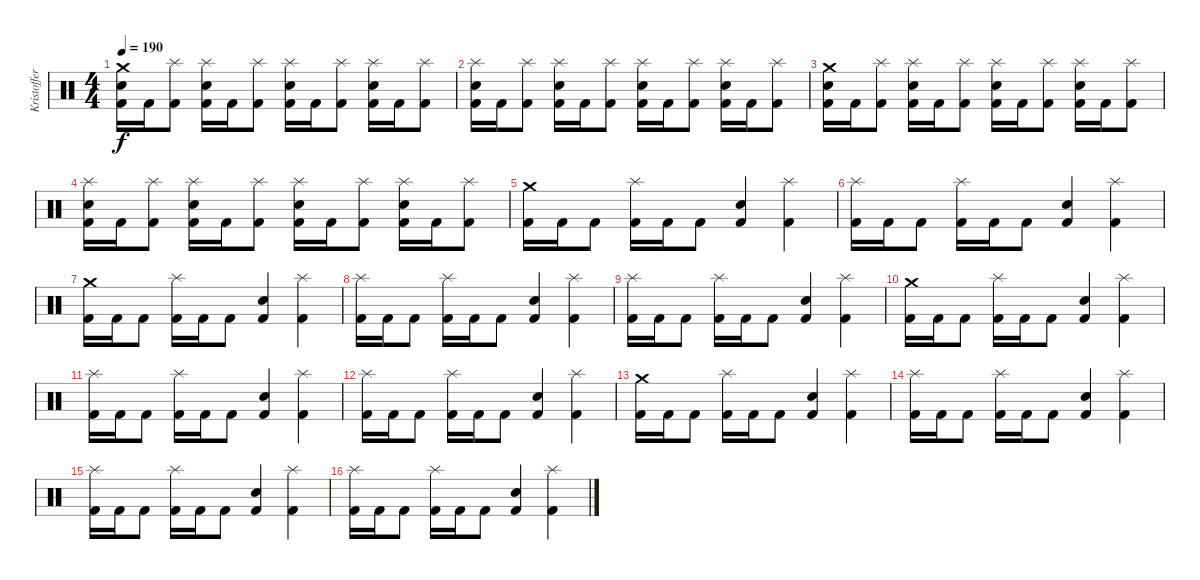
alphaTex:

\track ("Kristoffer (Drums)" "Kristoffer") {instrument percussion}
\staff {score}
\articulation defaults
\ts (4 4)
\tempo 190
\clef neutral
\ks c
("Kick (hit) 2" "Electric Snare (hit)" "Crash medium (hit)").16{dy f} "Kick (hit) 2".16 ("Kick (hit) 2" "Splash (hit)").8 ("Kick (hit) 2" "Electric Snare (hit)" "Splash (hit)").16 "Kick (hit) 2".16 ("Kick (hit) 2" "Splash (hit)").8 ("Kick (hit) 2" "Electric Snare (hit)" "Splash (hit)").16 "Kick (hit) 2".16 ("Kick (hit) 2" "Splash (hit)").8 ("Kick (hit) 2" "Electric Snare (hit)" "Splash (hit)").16 "Kick (hit) 2".16 ("Kick (hit) 2" "Splash (hit)").8 |
("Kick (hit) 2" "Electric Snare (hit)" "Splash (hit)").16 "Kick (hit) 2".16 ("Kick (hit) 2" "Splash (hit)").8 ("Kick (hit) 2" "Electric Snare (hit)" "Splash (hit)").16 "Kick (hit) 2".16 ("Kick (hit) 2" "Splash (hit)").8 ("Kick (hit) 2" "Electric Snare (hit)" "Splash (hit)").16 "Kick (hit) 2".16 ("Kick (hit) 2" "Splash (hit)").8 ("Kick (hit) 2" "Electric Snare (hit)" "Splash (hit)").16 "Kick (hit) 2".16 ("Kick (hit) 2" "Splash (hit)").8 |
("Kick (hit) 2" "Electric Snare (hit)" "Crash medium (hit)").16 "Kick (hit) 2".16 ("Kick (hit) 2" "Splash (hit)").8 ("Kick (hit) 2" "Electric Snare (hit)" "Splash (hit)").16 "Kick (hit) 2".16 ("Kick (hit) 2" "Splash (hit)").8 ("Kick (hit) 2" "Electric Snare (hit)" "Splash (hit)").16 "Kick (hit) 2".16 ("Kick (hit) 2" "Splash (hit)").8 ("Kick (hit) 2" "Electric Snare (hit)" "Splash (hit)").16 "Kick (hit) 2".16 ("Kick (hit) 2" "Splash (hit)").8 |
("Kick (hit) 2" "Electric Snare (hit)" "Splash (hit)").16 "Kick (hit) 2".16 ("Kick (hit) 2" "Splash (hit)").8 ("Kick (hit) 2" "Electric Snare (hit)" "Splash (hit)").16 "Kick (hit) 2".16 ("Kick (hit) 2" "Splash (hit)").8 ("Kick (hit) 2" "Electric Snare (hit)" "Splash (hit)").16 "Kick (hit) 2".16 ("Kick (hit) 2" "Splash (hit)").8 ("Kick (hit) 2" "Electric Snare (hit)" "Splash (hit)").16 "Kick (hit) 2".16 ("Kick (hit) 2" "Splash (hit)").8 |
("Kick (hit) 2" "Crash medium (hit)").16 "Kick (hit) 2".16 "Kick (hit) 2".8 ("Kick (hit) 2" "Splash (hit)").16 "Kick (hit) 2".16 "Kick (hit) 2".8 ("Kick (hit) 2" "Electric Snare (hit)").4 ("Kick (hit) 2" "Splash (hit)").4 |
("Kick (hit) 2" "Splash (hit)").16 "Kick (hit) 2".16 "Kick (hit) 2".8 ("Kick (hit) 2" "Splash (hit)").16 "Kick (hit) 2".16 "Kick (hit) 2".8 ("Kick (hit) 2" "Electric Snare (hit)").4 ("Kick (hit) 2" "Splash (hit)").4 |
("Kick (hit) 2" "Crash medium (hit)").16 "Kick (hit) 2".16 "Kick (hit) 2".8 ("Kick (hit) 2" "Splash (hit)").16 "Kick (hit) 2".16 "Kick (hit) 2".8 ("Kick (hit) 2" "Electric Snare (hit)").4 ("Kick (hit) 2" "Splash (hit)").4 |
("Kick (hit) 2" "Splash (hit)").16 "Kick (hit) 2".16 "Kick (hit) 2".8 ("Kick (hit) 2" "Splash (hit)").16 "Kick (hit) 2".16 "Kick (hit) 2".8 ("Kick (hit) 2" "Electric Snare (hit)").4 ("Kick (hit) 2" "Splash (hit)").4 |
("Kick (hit) 2" "Splash (hit)").16 "Kick (hit) 2".16 "Kick (hit) 2".8 ("Kick (hit) 2" "Splash (hit)").16 "Kick (hit) 2".16 "Kick (hit) 2".8 ("Kick (hit) 2" "Electric Snare (hit)").4 ("Kick (hit) 2" "Splash (hit)").4 |
("Kick (hit) 2" "Crash medium (hit)").16 "Kick (hit) 2".16 "Kick (hit) 2".8 ("Kick (hit) 2" "Splash (hit)").16 "Kick (hit) 2".16 "Kick (hit) 2".8 ("Kick (hit) 2" "Electric Snare (hit)").4 ("Kick (hit) 2" "Splash (hit)").4 |
("Kick (hit) 2" "Splash (hit)").16 "Kick (hit) 2".16 "Kick (hit) 2".8 ("Kick (hit) 2" "Splash (hit)").16 "Kick (hit) 2".16 "Kick (hit) 2".8 ("Kick (hit) 2" "Electric Snare (hit)").4 ("Kick (hit) 2" "Splash (hit)").4 |
("Kick (hit) 2" "Splash (hit)").16 "Kick (hit) 2".16 "Kick (hit) 2".8 ("Kick (hit) 2" "Splash (hit)").16 "Kick (hit) 2".16 "Kick (hit) 2".8 ("Kick (hit) 2" "Electric Snare (hit)").4 ("Kick (hit) 2" "Splash (hit)").4 |
("Kick (hit) 2" "Crash medium (hit)").16 "Kick (hit) 2".16 "Kick (hit) 2".8 ("Kick (hit) 2" "Splash (hit)").16 "Kick (hit) 2".16 "Kick (hit) 2".8 ("Kick (hit) 2" "Electric Snare (hit)").4 ("Kick (hit) 2" "Splash (hit)").4 |
("Kick (hit) 2" "Splash (hit)").16 "Kick (hit) 2".16 "Kick (hit) 2".8 ("Kick (hit) 2" "Splash (hit)").16 "Kick (hit) 2".16 "Kick (hit) 2".8 ("Kick (hit) 2" "Electric Snare (hit)").4 ("Kick (hit) 2" "Splash (hit)").4 |
("Kick (hit) 2" "Splash (hit)").16 "Kick (hit) 2".16 "Kick (hit) 2".8 ("Kick (hit) 2" "Splash (hit)").16 "Kick (hit) 2".16 "Kick (hit) 2".8 ("Kick (hit) 2" "Electric Snare (hit)").4 ("Kick (hit) 2" "Splash (hit)").4 |
("Kick (hit) 2" "Splash (hit)").16 "Kick (hit) 2".16 "Kick (hit) 2".8 ("Kick (hit) 2" "Splash (hit)").16 "Kick (hit) 2".16 "Kick (hit) 2".8 ("Kick (hit) 2" "Electric Snare (hit)").4 ("Kick (hit) 2" "Splash (hit)").4
